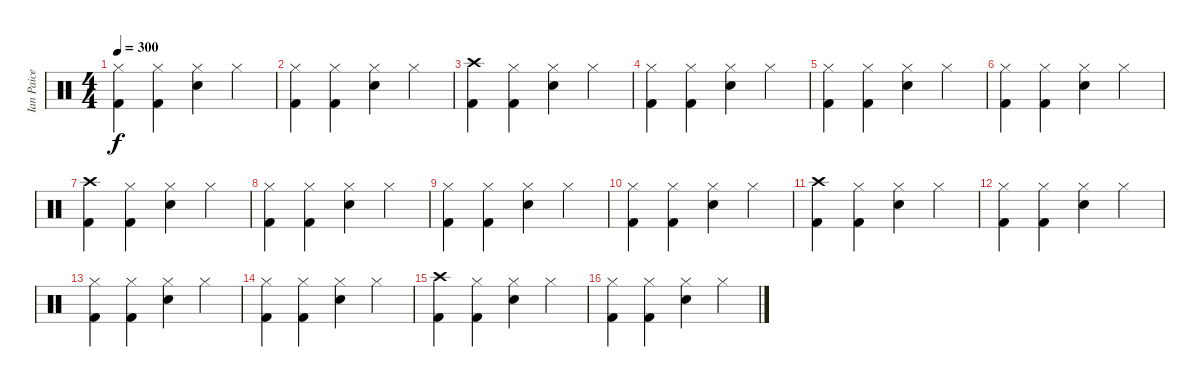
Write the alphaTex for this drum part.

\track ("Ian Paice" "Ian Paice") {instrument percussion}
\staff {score}
\articulation defaults
\ts (4 4)
\tempo 300
\clef neutral
\ks c
("Hi-Hat (closed)" "Kick (hit) 2").4{dy f} ("Hi-Hat (closed)" "Kick (hit) 2").4 ("Hi-Hat (closed)" "Electric Snare (hit)").4 "Hi-Hat (closed)".4 |
("Hi-Hat (closed)" "Kick (hit) 2").4 ("Hi-Hat (closed)" "Kick (hit) 2").4 ("Hi-Hat (closed)" "Electric Snare (hit)").4 "Hi-Hat (closed)".4 |
("Crash high (hit)" "Kick (hit) 2").4 ("Hi-Hat (closed)" "Kick (hit) 2").4 ("Hi-Hat (closed)" "Electric Snare (hit)").4 "Hi-Hat (closed)".4 |
("Hi-Hat (closed)" "Kick (hit) 2").4 ("Hi-Hat (closed)" "Kick (hit) 2").4 ("Hi-Hat (closed)" "Electric Snare (hit)").4 "Hi-Hat (closed)".4 |
("Hi-Hat (closed)" "Kick (hit) 2").4 ("Hi-Hat (closed)" "Kick (hit) 2").4 ("Hi-Hat (closed)" "Electric Snare (hit)").4 "Hi-Hat (closed)".4 |
("Hi-Hat (closed)" "Kick (hit) 2").4 ("Hi-Hat (closed)" "Kick (hit) 2").4 ("Hi-Hat (closed)" "Electric Snare (hit)").4 "Hi-Hat (closed)".4 |
("Crash high (hit)" "Kick (hit) 2").4 ("Hi-Hat (closed)" "Kick (hit) 2").4 ("Hi-Hat (closed)" "Electric Snare (hit)").4 "Hi-Hat (closed)".4 |
("Hi-Hat (closed)" "Kick (hit) 2").4 ("Hi-Hat (closed)" "Kick (hit) 2").4 ("Hi-Hat (closed)" "Electric Snare (hit)").4 "Hi-Hat (closed)".4 |
("Hi-Hat (closed)" "Kick (hit) 2").4 ("Hi-Hat (closed)" "Kick (hit) 2").4 ("Hi-Hat (closed)" "Electric Snare (hit)").4 "Hi-Hat (closed)".4 |
("Hi-Hat (closed)" "Kick (hit) 2").4 ("Hi-Hat (closed)" "Kick (hit) 2").4 ("Hi-Hat (closed)" "Electric Snare (hit)").4 "Hi-Hat (closed)".4 |
("Crash high (hit)" "Kick (hit) 2").4 ("Hi-Hat (closed)" "Kick (hit) 2").4 ("Hi-Hat (closed)" "Electric Snare (hit)").4 "Hi-Hat (closed)".4 |
("Hi-Hat (closed)" "Kick (hit) 2").4 ("Hi-Hat (closed)" "Kick (hit) 2").4 ("Hi-Hat (closed)" "Electric Snare (hit)").4 "Hi-Hat (closed)".4 |
("Hi-Hat (closed)" "Kick (hit) 2").4 ("Hi-Hat (closed)" "Kick (hit) 2").4 ("Hi-Hat (closed)" "Electric Snare (hit)").4 "Hi-Hat (closed)".4 |
("Hi-Hat (closed)" "Kick (hit) 2").4 ("Hi-Hat (closed)" "Kick (hit) 2").4 ("Hi-Hat (closed)" "Electric Snare (hit)").4 "Hi-Hat (closed)".4 |
("Crash high (hit)" "Kick (hit) 2").4 ("Hi-Hat (closed)" "Kick (hit) 2").4 ("Hi-Hat (closed)" "Electric Snare (hit)").4 "Hi-Hat (closed)".4 |
("Hi-Hat (closed)" "Kick (hit) 2").4 ("Hi-Hat (closed)" "Kick (hit) 2").4 ("Hi-Hat (closed)" "Electric Snare (hit)").4 "Hi-Hat (closed)".4
